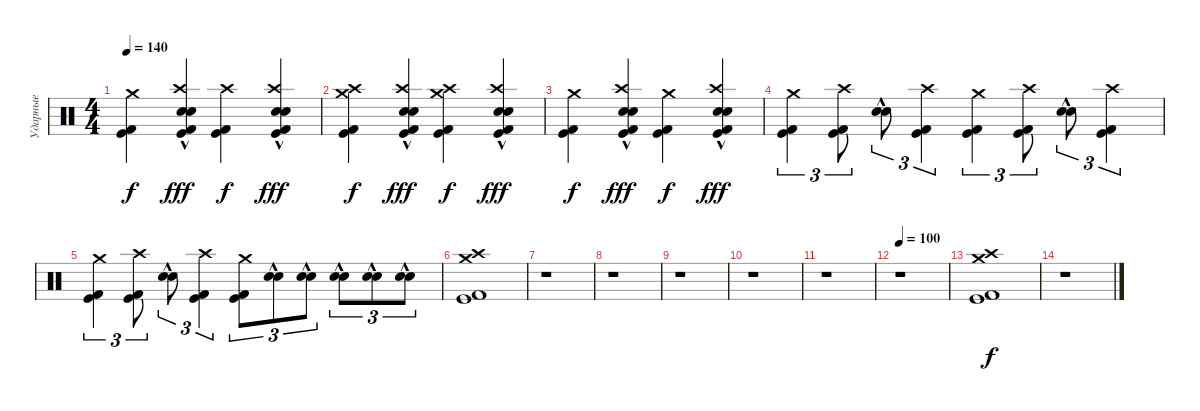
\track ("Ударные" "Ударные") {instrument percussion}
\staff {score}
\articulation defaults
\ts (4 4)
\tempo 140
\clef neutral
\ks c
("Crash medium (hit)" "Kick (hit)" "Kick (hit) 2").4{dy f} ("Crash high (hit)" "Kick (hit)" "Kick (hit) 2" "Snare (hit) 2"{hac} "Electric Snare (hit)"{hac}).4{dy fff} ("Crash high (hit)" "Kick (hit)" "Kick (hit) 2").4{dy f} ("Crash high (hit)" "Kick (hit)" "Kick (hit) 2" "Snare (hit) 2"{hac} "Electric Snare (hit)"{hac}).4{dy fff} |
("Crash high (hit)" "Kick (hit)" "Kick (hit) 2" "Crash medium (hit)").4{dy f} ("Crash high (hit)" "Kick (hit)" "Kick (hit) 2" "Snare (hit) 2"{hac} "Electric Snare (hit)"{hac}).4{dy fff} ("Crash high (hit)" "Kick (hit)" "Kick (hit) 2" "Crash medium (hit)").4{dy f} ("Crash high (hit)" "Kick (hit)" "Kick (hit) 2" "Snare (hit) 2"{hac} "Electric Snare (hit)"{hac}).4{dy fff} |
("Crash medium (hit)" "Kick (hit)" "Kick (hit) 2").4{dy f} ("Crash high (hit)" "Kick (hit)" "Kick (hit) 2" "Snare (hit) 2"{hac} "Electric Snare (hit)"{hac}).4{dy fff} ("Crash medium (hit)" "Kick (hit)" "Kick (hit) 2").4{dy f} ("Crash high (hit)" "Kick (hit)" "Kick (hit) 2" "Snare (hit) 2"{hac} "Electric Snare (hit)"{hac}).4{dy fff} |
("Crash medium (hit)" "Kick (hit)" "Kick (hit) 2").4{tu (3 2)} ("Crash high (hit)" "Kick (hit)" "Kick (hit) 2").8{tu (3 2)} ("Snare (hit) 2"{hac} "Electric Snare (hit)"{hac}).8{tu (3 2)} ("Crash high (hit)" "Kick (hit)" "Kick (hit) 2").4{tu (3 2)} ("Crash medium (hit)" "Kick (hit)" "Kick (hit) 2").4{tu (3 2)} ("Crash high (hit)" "Kick (hit)" "Kick (hit) 2").8{tu (3 2)} ("Snare (hit) 2"{hac} "Electric Snare (hit)"{hac}).8{tu (3 2)} ("Crash high (hit)" "Kick (hit)" "Kick (hit) 2").4{tu (3 2)} |
("Crash medium (hit)" "Kick (hit)" "Kick (hit) 2").4{tu (3 2)} ("Crash high (hit)" "Kick (hit)" "Kick (hit) 2").8{tu (3 2)} ("Snare (hit) 2"{hac} "Electric Snare (hit)"{hac}).8{tu (3 2)} ("Crash high (hit)" "Kick (hit)" "Kick (hit) 2").4{tu (3 2)} ("Crash medium (hit)" "Kick (hit)" "Kick (hit) 2").8{tu (3 2)} ("Snare (hit) 2"{hac} "Electric Snare (hit)"{hac}).8{tu (3 2)} ("Snare (hit) 2"{hac} "Electric Snare (hit)"{hac}).8{tu (3 2)} ("Snare (hit) 2"{hac} "Electric Snare (hit)"{hac}).8{tu (3 2)} ("Snare (hit) 2"{hac} "Electric Snare (hit)"{hac}).8{tu (3 2)} ("Snare (hit) 2"{hac} "Electric Snare (hit)"{hac}).8{tu (3 2)} |
("Crash high (hit)" "Kick (hit)" "Kick (hit) 2" "Crash medium (hit)").1 |
r.1 |
r.1 |
r.1 |
r.1 |
r.1 |
\tempo 100
r.1 |
("Crash high (hit)" "Kick (hit)" "Kick (hit) 2" "Crash medium (hit)").1{dy f} |
r.1
